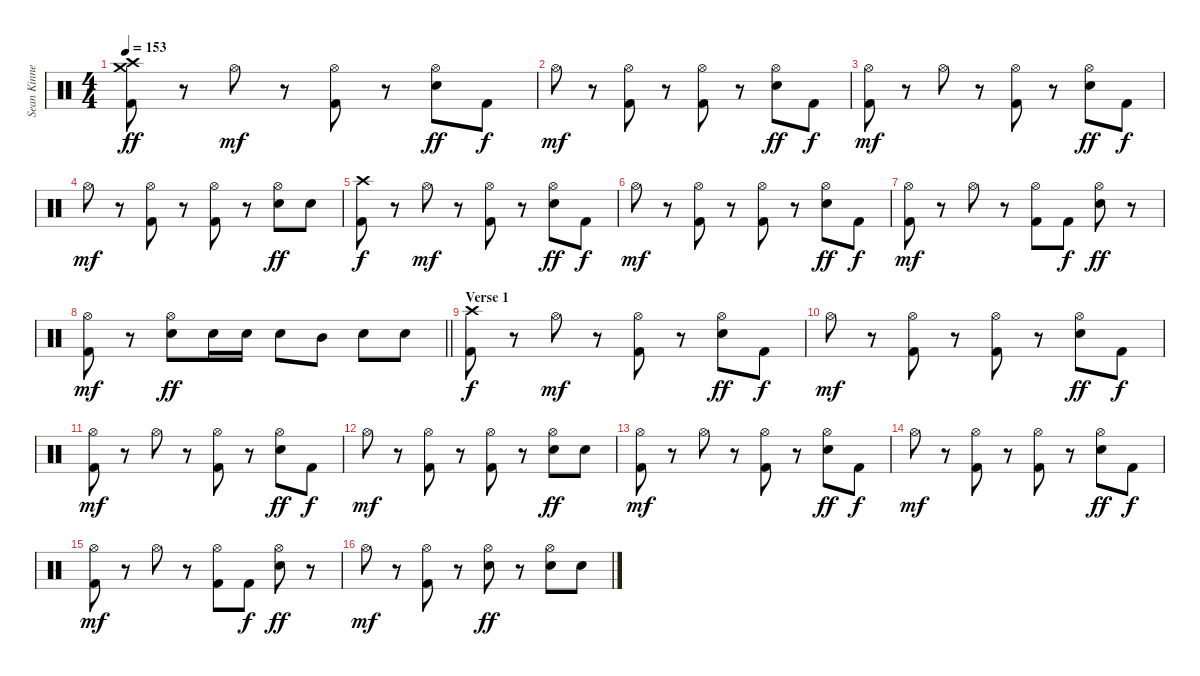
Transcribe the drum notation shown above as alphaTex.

\track ("Sean Kinney - Drums" "Sean Kinne") {instrument percussion}
\staff {score}
\articulation defaults
\ts (4 4)
\tempo 153
\clef neutral
\ks c
("Crash medium (hit)" "Crash high (hit)" "Kick (hit) 2").8{dy ff} r.8 "Hi-Hat (open)".8{dy mf} r.8 ("Hi-Hat (open)" "Kick (hit) 2").8 r.8 ("Hi-Hat (open)" "Snare (hit) 2").8{dy ff} "Kick (hit) 2".8{dy f} |
"Hi-Hat (open)".8{dy mf} r.8 ("Hi-Hat (open)" "Kick (hit) 2").8 r.8 ("Hi-Hat (open)" "Kick (hit) 2").8 r.8 ("Hi-Hat (open)" "Snare (hit) 2").8{dy ff} "Kick (hit) 2".8{dy f} |
("Hi-Hat (open)" "Kick (hit) 2").8{dy mf} r.8 "Hi-Hat (open)".8 r.8 ("Hi-Hat (open)" "Kick (hit) 2").8 r.8 ("Hi-Hat (open)" "Snare (hit) 2").8{dy ff} "Kick (hit) 2".8{dy f} |
"Hi-Hat (open)".8{dy mf} r.8 ("Hi-Hat (open)" "Kick (hit) 2").8 r.8 ("Hi-Hat (open)" "Kick (hit) 2").8 r.8 ("Hi-Hat (open)" "Snare (hit) 2").8{dy ff} "Snare (hit) 2".8 |
("Crash high (hit)" "Kick (hit) 2").8{dy f} r.8 "Hi-Hat (open)".8{dy mf} r.8 ("Hi-Hat (open)" "Kick (hit) 2").8 r.8 ("Hi-Hat (open)" "Snare (hit) 2").8{dy ff} "Kick (hit) 2".8{dy f} |
"Hi-Hat (open)".8{dy mf} r.8 ("Hi-Hat (open)" "Kick (hit) 2").8 r.8 ("Hi-Hat (open)" "Kick (hit) 2").8 r.8 ("Hi-Hat (open)" "Snare (hit) 2").8{dy ff} "Kick (hit) 2".8{dy f} |
("Hi-Hat (open)" "Kick (hit) 2").8{dy mf} r.8 "Hi-Hat (open)".8 r.8 ("Hi-Hat (open)" "Kick (hit) 2").8 "Kick (hit) 2".8{dy f} ("Hi-Hat (open)" "Snare (hit) 2").8{dy ff} r.8 |
\barLineRight lightlight
("Hi-Hat (open)" "Kick (hit) 2").8{dy mf} r.8 ("Hi-Hat (open)" "Snare (hit) 2").8{dy ff} "Snare (hit) 2".16 "Snare (hit) 2".16 "Snare (hit) 2".8 "Mid Tom (hit)".8 "Snare (hit) 2".8 "Snare (hit) 2".8 |
\section ("" "Verse 1")
("Crash high (hit)" "Kick (hit) 2").8{dy f} r.8 "Hi-Hat (open)".8{dy mf} r.8 ("Hi-Hat (open)" "Kick (hit) 2").8 r.8 ("Hi-Hat (open)" "Snare (hit) 2").8{dy ff} "Kick (hit) 2".8{dy f} |
"Hi-Hat (open)".8{dy mf} r.8 ("Hi-Hat (open)" "Kick (hit) 2").8 r.8 ("Hi-Hat (open)" "Kick (hit) 2").8 r.8 ("Hi-Hat (open)" "Snare (hit) 2").8{dy ff} "Kick (hit) 2".8{dy f} |
("Hi-Hat (open)" "Kick (hit) 2").8{dy mf} r.8 "Hi-Hat (open)".8 r.8 ("Hi-Hat (open)" "Kick (hit) 2").8 r.8 ("Hi-Hat (open)" "Snare (hit) 2").8{dy ff} "Kick (hit) 2".8{dy f} |
"Hi-Hat (open)".8{dy mf} r.8 ("Hi-Hat (open)" "Kick (hit) 2").8 r.8 ("Hi-Hat (open)" "Kick (hit) 2").8 r.8 ("Hi-Hat (open)" "Snare (hit) 2").8{dy ff} "Snare (hit) 2".8 |
("Hi-Hat (open)" "Kick (hit) 2").8{dy mf} r.8 "Hi-Hat (open)".8 r.8 ("Hi-Hat (open)" "Kick (hit) 2").8 r.8 ("Hi-Hat (open)" "Snare (hit) 2").8{dy ff} "Kick (hit) 2".8{dy f} |
"Hi-Hat (open)".8{dy mf} r.8 ("Hi-Hat (open)" "Kick (hit) 2").8 r.8 ("Hi-Hat (open)" "Kick (hit) 2").8 r.8 ("Hi-Hat (open)" "Snare (hit) 2").8{dy ff} "Kick (hit) 2".8{dy f} |
("Hi-Hat (open)" "Kick (hit) 2").8{dy mf} r.8 "Hi-Hat (open)".8 r.8 ("Hi-Hat (open)" "Kick (hit) 2").8 "Kick (hit) 2".8{dy f} ("Hi-Hat (open)" "Snare (hit) 2").8{dy ff} r.8 |
"Hi-Hat (open)".8{dy mf} r.8 ("Hi-Hat (open)" "Kick (hit) 2").8 r.8 ("Hi-Hat (open)" "Snare (hit) 2").8{dy ff} r.8 ("Hi-Hat (open)" "Snare (hit) 2").8 "Snare (hit) 2".8
